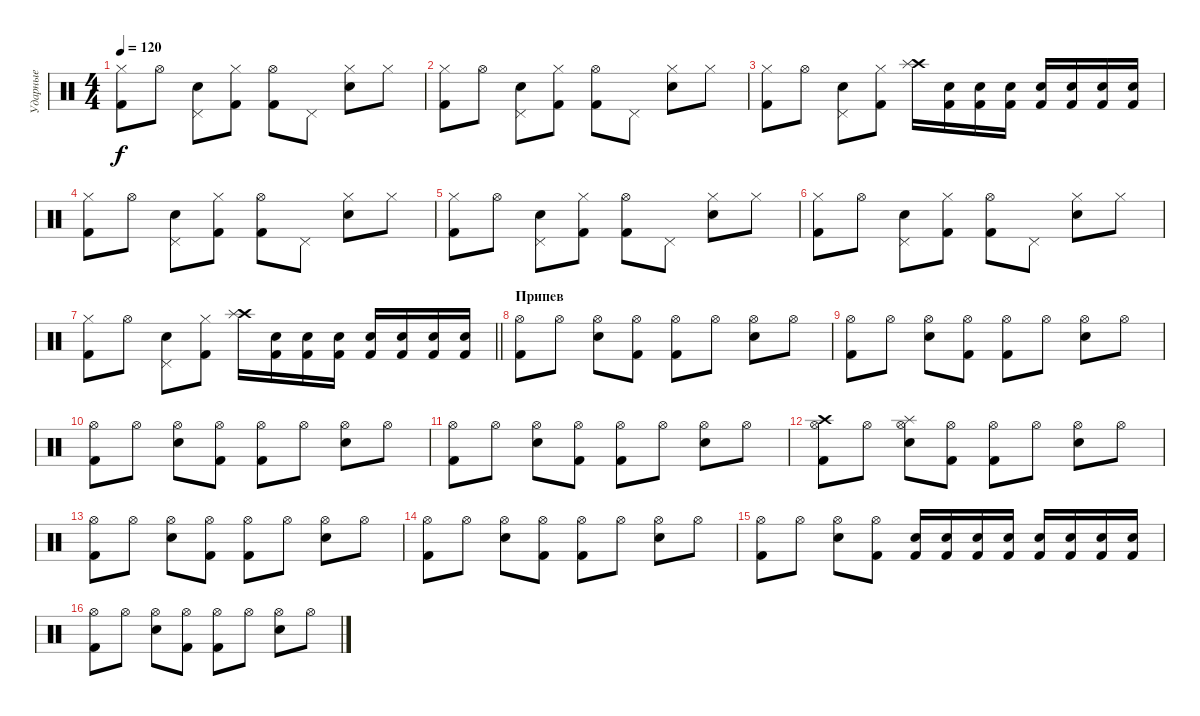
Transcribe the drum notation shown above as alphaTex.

\track ("Ударные" "Ударные") {instrument percussion}
\staff {score}
\articulation defaults
\ts (4 4)
\tempo 120
\clef neutral
\ks c
("Hi-Hat (closed)" "Kick (hit) 2").8{dy f} "Hi-Hat (open)".8 ("Pedal Hi-Hat (hit)" "Snare (hit) 2").8 ("Hi-Hat (closed)" "Kick (hit) 2").8 ("Hi-Hat (open)" "Kick (hit) 2").8 "Pedal Hi-Hat (hit)".8 ("Hi-Hat (closed)" "Snare (hit) 2").8 "Hi-Hat (closed)".8 |
("Hi-Hat (closed)" "Kick (hit) 2").8 "Hi-Hat (open)".8 ("Pedal Hi-Hat (hit)" "Snare (hit) 2").8 ("Hi-Hat (closed)" "Kick (hit) 2").8 ("Hi-Hat (open)" "Kick (hit) 2").8 "Pedal Hi-Hat (hit)".8 ("Hi-Hat (closed)" "Snare (hit) 2").8 "Hi-Hat (closed)".8 |
("Hi-Hat (closed)" "Kick (hit) 2").8 "Hi-Hat (open)".8 ("Pedal Hi-Hat (hit)" "Snare (hit) 2").8 ("Hi-Hat (closed)" "Kick (hit) 2").8 ("Crash high (hit)" "Splash (hit)").16 ("Snare (hit) 2" "Kick (hit) 2").16 ("Snare (hit) 2" "Kick (hit) 2").16 ("Snare (hit) 2" "Kick (hit) 2").16 ("Snare (hit) 2" "Kick (hit) 2").16 ("Snare (hit) 2" "Kick (hit) 2").16 ("Snare (hit) 2" "Kick (hit) 2").16 ("Snare (hit) 2" "Kick (hit) 2").16 |
("Hi-Hat (closed)" "Kick (hit) 2").8 "Hi-Hat (open)".8 ("Pedal Hi-Hat (hit)" "Snare (hit) 2").8 ("Hi-Hat (closed)" "Kick (hit) 2").8 ("Hi-Hat (open)" "Kick (hit) 2").8 "Pedal Hi-Hat (hit)".8 ("Hi-Hat (closed)" "Snare (hit) 2").8 "Hi-Hat (closed)".8 |
("Hi-Hat (closed)" "Kick (hit) 2").8 "Hi-Hat (open)".8 ("Pedal Hi-Hat (hit)" "Snare (hit) 2").8 ("Hi-Hat (closed)" "Kick (hit) 2").8 ("Hi-Hat (open)" "Kick (hit) 2").8 "Pedal Hi-Hat (hit)".8 ("Hi-Hat (closed)" "Snare (hit) 2").8 "Hi-Hat (closed)".8 |
("Hi-Hat (closed)" "Kick (hit) 2").8 "Hi-Hat (open)".8 ("Pedal Hi-Hat (hit)" "Snare (hit) 2").8 ("Hi-Hat (closed)" "Kick (hit) 2").8 ("Hi-Hat (open)" "Kick (hit) 2").8 "Pedal Hi-Hat (hit)".8 ("Hi-Hat (closed)" "Snare (hit) 2").8 "Hi-Hat (closed)".8 |
\barLineRight lightlight
("Hi-Hat (closed)" "Kick (hit) 2").8 "Hi-Hat (open)".8 ("Pedal Hi-Hat (hit)" "Snare (hit) 2").8 ("Hi-Hat (closed)" "Kick (hit) 2").8 ("Crash high (hit)" "Splash (hit)").16 ("Snare (hit) 2" "Kick (hit) 2").16 ("Snare (hit) 2" "Kick (hit) 2").16 ("Snare (hit) 2" "Kick (hit) 2").16 ("Snare (hit) 2" "Kick (hit) 2").16 ("Snare (hit) 2" "Kick (hit) 2").16 ("Snare (hit) 2" "Kick (hit) 2").16 ("Snare (hit) 2" "Kick (hit) 2").16 |
\section ("" "Припев")
("Hi-Hat (open)" "Kick (hit) 2").8 "Hi-Hat (open)".8 ("Hi-Hat (open)" "Snare (hit) 2").8 ("Hi-Hat (open)" "Kick (hit) 2").8 ("Hi-Hat (open)" "Kick (hit) 2").8 "Hi-Hat (open)".8 ("Hi-Hat (open)" "Snare (hit) 2").8 "Hi-Hat (open)".8 |
("Hi-Hat (open)" "Kick (hit) 2").8 "Hi-Hat (open)".8 ("Hi-Hat (open)" "Snare (hit) 2").8 ("Hi-Hat (open)" "Kick (hit) 2").8 ("Hi-Hat (open)" "Kick (hit) 2").8 "Hi-Hat (open)".8 ("Hi-Hat (open)" "Snare (hit) 2").8 "Hi-Hat (open)".8 |
("Hi-Hat (open)" "Kick (hit) 2").8 "Hi-Hat (open)".8 ("Hi-Hat (open)" "Snare (hit) 2").8 ("Hi-Hat (open)" "Kick (hit) 2").8 ("Hi-Hat (open)" "Kick (hit) 2").8 "Hi-Hat (open)".8 ("Hi-Hat (open)" "Snare (hit) 2").8 "Hi-Hat (open)".8 |
("Hi-Hat (open)" "Kick (hit) 2").8 "Hi-Hat (open)".8 ("Hi-Hat (open)" "Snare (hit) 2").8 ("Hi-Hat (open)" "Kick (hit) 2").8 ("Hi-Hat (open)" "Kick (hit) 2").8 "Hi-Hat (open)".8 ("Hi-Hat (open)" "Snare (hit) 2").8 "Hi-Hat (open)".8 |
("Crash high (hit)" "Hi-Hat (open)" "Kick (hit) 2").8 "Hi-Hat (open)".8 ("Splash (hit)" "Hi-Hat (open)" "Snare (hit) 2").8 ("Hi-Hat (open)" "Kick (hit) 2").8 ("Hi-Hat (open)" "Kick (hit) 2").8 "Hi-Hat (open)".8 ("Hi-Hat (open)" "Snare (hit) 2").8 "Hi-Hat (open)".8 |
("Hi-Hat (open)" "Kick (hit) 2").8 "Hi-Hat (open)".8 ("Hi-Hat (open)" "Snare (hit) 2").8 ("Hi-Hat (open)" "Kick (hit) 2").8 ("Hi-Hat (open)" "Kick (hit) 2").8 "Hi-Hat (open)".8 ("Hi-Hat (open)" "Snare (hit) 2").8 "Hi-Hat (open)".8 |
("Hi-Hat (open)" "Kick (hit) 2").8 "Hi-Hat (open)".8 ("Hi-Hat (open)" "Snare (hit) 2").8 ("Hi-Hat (open)" "Kick (hit) 2").8 ("Hi-Hat (open)" "Kick (hit) 2").8 "Hi-Hat (open)".8 ("Hi-Hat (open)" "Snare (hit) 2").8 "Hi-Hat (open)".8 |
("Hi-Hat (open)" "Kick (hit) 2").8 "Hi-Hat (open)".8 ("Hi-Hat (open)" "Snare (hit) 2").8 ("Hi-Hat (open)" "Kick (hit) 2").8 ("Snare (hit) 2" "Kick (hit) 2").16 ("Snare (hit) 2" "Kick (hit) 2").16 ("Snare (hit) 2" "Kick (hit) 2").16 ("Snare (hit) 2" "Kick (hit) 2").16 ("Snare (hit) 2" "Kick (hit) 2").16 ("Snare (hit) 2" "Kick (hit) 2").16 ("Snare (hit) 2" "Kick (hit) 2").16 ("Snare (hit) 2" "Kick (hit) 2").16 |
("Hi-Hat (open)" "Kick (hit) 2").8 "Hi-Hat (open)".8 ("Hi-Hat (open)" "Snare (hit) 2").8 ("Hi-Hat (open)" "Kick (hit) 2").8 ("Hi-Hat (open)" "Kick (hit) 2").8 "Hi-Hat (open)".8 ("Hi-Hat (open)" "Snare (hit) 2").8 "Hi-Hat (open)".8
